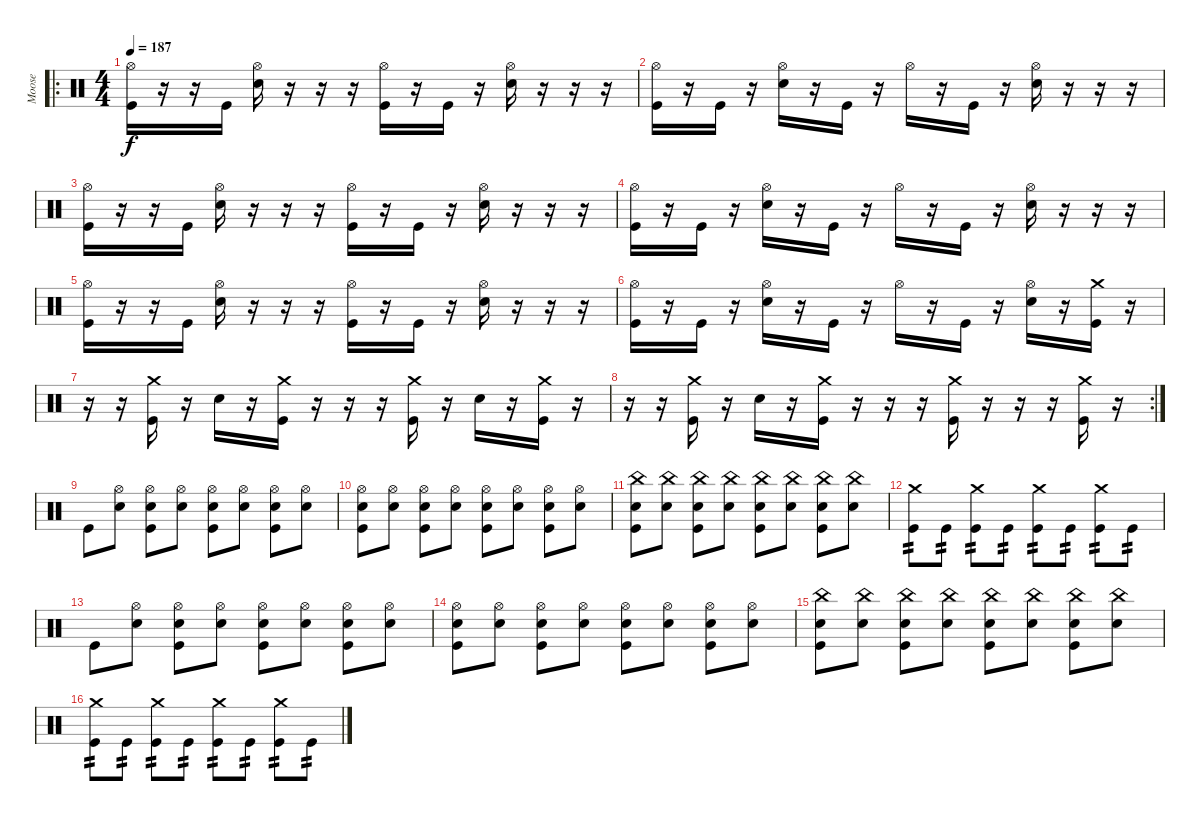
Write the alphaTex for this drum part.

\track ("Moose" "Moose") {instrument percussion}
\staff {score}
\articulation defaults
\ro
\ts (4 4)
\tempo 187
\clef neutral
\ks c
("Hi-Hat (open)" "Kick (hit)").16{dy f} r.16 r.16 "Kick (hit)".16 ("Hi-Hat (open)" "Electric Snare (hit)").16 r.16 r.16 r.16 ("Hi-Hat (open)" "Kick (hit)").16 r.16 "Kick (hit)".16 r.16 ("Hi-Hat (open)" "Electric Snare (hit)").16 r.16 r.16 r.16 |
("Hi-Hat (open)" "Kick (hit)").16 r.16 "Kick (hit)".16 r.16 ("Hi-Hat (open)" "Electric Snare (hit)").16 r.16 "Kick (hit)".16 r.16 "Hi-Hat (open)".16 r.16 "Kick (hit)".16 r.16 ("Hi-Hat (open)" "Electric Snare (hit)").16 r.16 r.16 r.16 |
("Hi-Hat (open)" "Kick (hit)").16 r.16 r.16 "Kick (hit)".16 ("Hi-Hat (open)" "Electric Snare (hit)").16 r.16 r.16 r.16 ("Hi-Hat (open)" "Kick (hit)").16 r.16 "Kick (hit)".16 r.16 ("Hi-Hat (open)" "Electric Snare (hit)").16 r.16 r.16 r.16 |
("Hi-Hat (open)" "Kick (hit)").16 r.16 "Kick (hit)".16 r.16 ("Hi-Hat (open)" "Electric Snare (hit)").16 r.16 "Kick (hit)".16 r.16 "Hi-Hat (open)".16 r.16 "Kick (hit)".16 r.16 ("Hi-Hat (open)" "Electric Snare (hit)").16 r.16 r.16 r.16 |
("Hi-Hat (open)" "Kick (hit)").16 r.16 r.16 "Kick (hit)".16 ("Hi-Hat (open)" "Electric Snare (hit)").16 r.16 r.16 r.16 ("Hi-Hat (open)" "Kick (hit)").16 r.16 "Kick (hit)".16 r.16 ("Hi-Hat (open)" "Electric Snare (hit)").16 r.16 r.16 r.16 |
("Hi-Hat (open)" "Kick (hit)").16 r.16 "Kick (hit)".16 r.16 ("Hi-Hat (open)" "Electric Snare (hit)").16 r.16 "Kick (hit)".16 r.16 "Hi-Hat (open)".16 r.16 "Kick (hit)".16 r.16 ("Hi-Hat (open)" "Electric Snare (hit)").16 r.16 ("Crash medium (hit)" "Kick (hit)").16 r.16 |
r.16 r.16 ("Crash medium (hit)" "Kick (hit)").16 r.16 "Electric Snare (hit)".16 r.16 ("Crash medium (hit)" "Kick (hit)").16 r.16 r.16 r.16 ("Crash medium (hit)" "Kick (hit)").16 r.16 "Electric Snare (hit)".16 r.16 ("Crash medium (hit)" "Kick (hit)").16 r.16 |
\rc 2
r.16 r.16 ("Crash medium (hit)" "Kick (hit)").16 r.16 "Electric Snare (hit)".16 r.16 ("Crash medium (hit)" "Kick (hit)").16 r.16 r.16 r.16 ("Crash medium (hit)" "Kick (hit)").16 r.16 r.16 r.16 ("Crash medium (hit)" "Kick (hit)").16 r.16 |
"Kick (hit)".8 ("Electric Snare (hit)" "Hi-Hat (open)").8 ("Electric Snare (hit)" "Hi-Hat (open)" "Kick (hit)").8 ("Electric Snare (hit)" "Hi-Hat (open)").8 ("Electric Snare (hit)" "Hi-Hat (open)" "Kick (hit)").8 ("Electric Snare (hit)" "Hi-Hat (open)").8 ("Electric Snare (hit)" "Hi-Hat (open)" "Kick (hit)").8 ("Electric Snare (hit)" "Hi-Hat (open)").8 |
("Electric Snare (hit)" "Hi-Hat (open)" "Kick (hit)").8 ("Electric Snare (hit)" "Hi-Hat (open)").8 ("Electric Snare (hit)" "Hi-Hat (open)" "Kick (hit)").8 ("Electric Snare (hit)" "Hi-Hat (open)").8 ("Electric Snare (hit)" "Hi-Hat (open)" "Kick (hit)").8 ("Electric Snare (hit)" "Hi-Hat (open)").8 ("Electric Snare (hit)" "Hi-Hat (open)" "Kick (hit)").8 ("Electric Snare (hit)" "Hi-Hat (open)").8 |
("Electric Snare (hit)" "China (hit)" "Kick (hit)").8 ("Electric Snare (hit)" "China (hit)").8 ("Electric Snare (hit)" "China (hit)" "Kick (hit)").8 ("Electric Snare (hit)" "China (hit)").8 ("Electric Snare (hit)" "China (hit)" "Kick (hit)").8 ("Electric Snare (hit)" "China (hit)").8 ("Electric Snare (hit)" "China (hit)" "Kick (hit)").8 ("Electric Snare (hit)" "China (hit)").8 |
("Crash medium (hit)" "Kick (hit)").8{tp 2} "Kick (hit)".8{tp 2} ("Crash medium (hit)" "Kick (hit)").8{tp 2} "Kick (hit)".8{tp 2} ("Crash medium (hit)" "Kick (hit)").8{tp 2} "Kick (hit)".8{tp 2} ("Crash medium (hit)" "Kick (hit)").8{tp 2} "Kick (hit)".8{tp 2} |
"Kick (hit)".8 ("Electric Snare (hit)" "Hi-Hat (open)").8 ("Electric Snare (hit)" "Hi-Hat (open)" "Kick (hit)").8 ("Electric Snare (hit)" "Hi-Hat (open)").8 ("Electric Snare (hit)" "Hi-Hat (open)" "Kick (hit)").8 ("Electric Snare (hit)" "Hi-Hat (open)").8 ("Electric Snare (hit)" "Hi-Hat (open)" "Kick (hit)").8 ("Electric Snare (hit)" "Hi-Hat (open)").8 |
("Electric Snare (hit)" "Hi-Hat (open)" "Kick (hit)").8 ("Electric Snare (hit)" "Hi-Hat (open)").8 ("Electric Snare (hit)" "Hi-Hat (open)" "Kick (hit)").8 ("Electric Snare (hit)" "Hi-Hat (open)").8 ("Electric Snare (hit)" "Hi-Hat (open)" "Kick (hit)").8 ("Electric Snare (hit)" "Hi-Hat (open)").8 ("Electric Snare (hit)" "Hi-Hat (open)" "Kick (hit)").8 ("Electric Snare (hit)" "Hi-Hat (open)").8 |
("Electric Snare (hit)" "China (hit)" "Kick (hit)").8 ("Electric Snare (hit)" "China (hit)").8 ("Electric Snare (hit)" "China (hit)" "Kick (hit)").8 ("Electric Snare (hit)" "China (hit)").8 ("Electric Snare (hit)" "China (hit)" "Kick (hit)").8 ("Electric Snare (hit)" "China (hit)").8 ("Electric Snare (hit)" "China (hit)" "Kick (hit)").8 ("Electric Snare (hit)" "China (hit)").8 |
("Crash medium (hit)" "Kick (hit)").8{tp 2} "Kick (hit)".8{tp 2} ("Crash medium (hit)" "Kick (hit)").8{tp 2} "Kick (hit)".8{tp 2} ("Crash medium (hit)" "Kick (hit)").8{tp 2} "Kick (hit)".8{tp 2} ("Crash medium (hit)" "Kick (hit)").8{tp 2} "Kick (hit)".8{tp 2}
